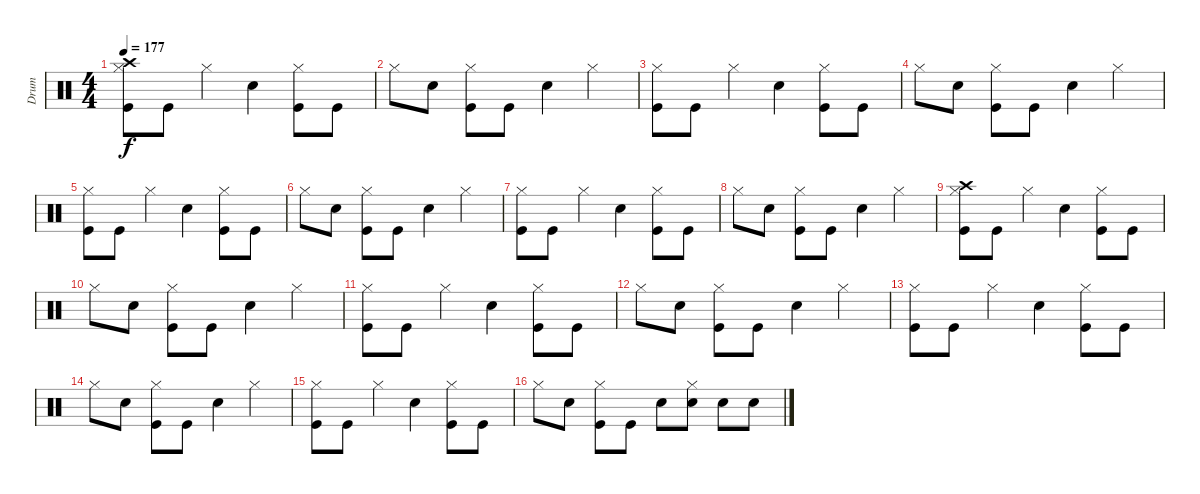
\track ("Drum" "Drum") {instrument percussion}
\staff {score}
\articulation defaults
\ts (4 4)
\tempo 177
\clef neutral
\ks c
("Kick (hit)" "Hi-Hat (closed)" "Crash high (hit)").8{dy f} "Kick (hit)".8 "Hi-Hat (closed)".4 "Snare (hit) 2".4 ("Kick (hit)" "Hi-Hat (closed)").8 "Kick (hit)".8 |
"Hi-Hat (closed)".8 "Snare (hit) 2".8 ("Kick (hit)" "Hi-Hat (closed)").8 "Kick (hit)".8 "Snare (hit) 2".4 "Hi-Hat (closed)".4 |
("Kick (hit)" "Hi-Hat (closed)").8 "Kick (hit)".8 "Hi-Hat (closed)".4 "Snare (hit) 2".4 ("Kick (hit)" "Hi-Hat (closed)").8 "Kick (hit)".8 |
"Hi-Hat (closed)".8 "Snare (hit) 2".8 ("Kick (hit)" "Hi-Hat (closed)").8 "Kick (hit)".8 "Snare (hit) 2".4 "Hi-Hat (closed)".4 |
("Kick (hit)" "Hi-Hat (closed)").8 "Kick (hit)".8 "Hi-Hat (closed)".4 "Snare (hit) 2".4 ("Kick (hit)" "Hi-Hat (closed)").8 "Kick (hit)".8 |
"Hi-Hat (closed)".8 "Snare (hit) 2".8 ("Kick (hit)" "Hi-Hat (closed)").8 "Kick (hit)".8 "Snare (hit) 2".4 "Hi-Hat (closed)".4 |
("Kick (hit)" "Hi-Hat (closed)").8 "Kick (hit)".8 "Hi-Hat (closed)".4 "Snare (hit) 2".4 ("Kick (hit)" "Hi-Hat (closed)").8 "Kick (hit)".8 |
"Hi-Hat (closed)".8 "Snare (hit) 2".8 ("Kick (hit)" "Hi-Hat (closed)").8 "Kick (hit)".8 "Snare (hit) 2".4 "Hi-Hat (closed)".4 |
("Kick (hit)" "Hi-Hat (closed)" "Crash high (hit)").8 "Kick (hit)".8 "Hi-Hat (closed)".4 "Snare (hit) 2".4 ("Kick (hit)" "Hi-Hat (closed)").8 "Kick (hit)".8 |
"Hi-Hat (closed)".8 "Snare (hit) 2".8 ("Kick (hit)" "Hi-Hat (closed)").8 "Kick (hit)".8 "Snare (hit) 2".4 "Hi-Hat (closed)".4 |
("Kick (hit)" "Hi-Hat (closed)").8 "Kick (hit)".8 "Hi-Hat (closed)".4 "Snare (hit) 2".4 ("Kick (hit)" "Hi-Hat (closed)").8 "Kick (hit)".8 |
"Hi-Hat (closed)".8 "Snare (hit) 2".8 ("Kick (hit)" "Hi-Hat (closed)").8 "Kick (hit)".8 "Snare (hit) 2".4 "Hi-Hat (closed)".4 |
("Kick (hit)" "Hi-Hat (closed)").8 "Kick (hit)".8 "Hi-Hat (closed)".4 "Snare (hit) 2".4 ("Kick (hit)" "Hi-Hat (closed)").8 "Kick (hit)".8 |
"Hi-Hat (closed)".8 "Snare (hit) 2".8 ("Kick (hit)" "Hi-Hat (closed)").8 "Kick (hit)".8 "Snare (hit) 2".4 "Hi-Hat (closed)".4 |
("Kick (hit)" "Hi-Hat (closed)").8 "Kick (hit)".8 "Hi-Hat (closed)".4 "Snare (hit) 2".4 ("Kick (hit)" "Hi-Hat (closed)").8 "Kick (hit)".8 |
"Hi-Hat (closed)".8 "Snare (hit) 2".8 ("Kick (hit)" "Hi-Hat (closed)").8 "Kick (hit)".8 "Snare (hit) 2".8 ("Snare (hit) 2" "Hi-Hat (closed)").8 "Snare (hit) 2".8 "Snare (hit) 2".8
